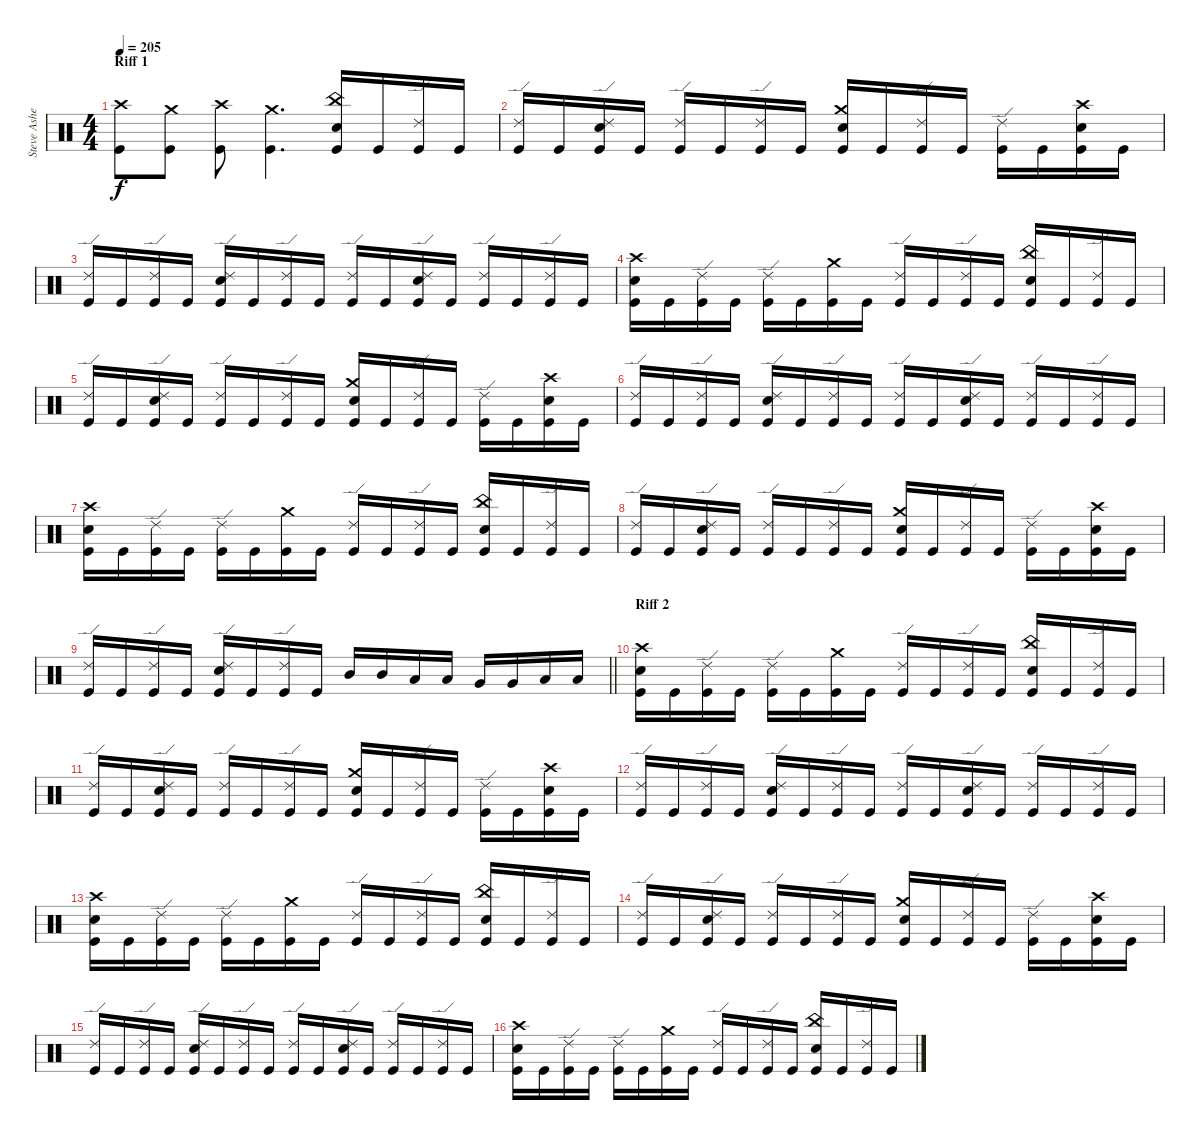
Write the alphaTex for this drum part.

\track ("Steve Asheim" "Steve Ashe") {instrument percussion}
\staff {score}
\articulation defaults
\ts (4 4)
\section ("" "Riff 1")
\tempo 205
\clef neutral
\ks c
("Crash high (hit)" "Kick (hit)").8{dy f} ("Crash medium (hit)" "Kick (hit)").8 ("Crash high (hit)" "Kick (hit)").8 ("Crash medium (hit)" "Kick (hit)").4{d} ("China (hit)" "Snare (hit) 2" "Kick (hit)").16 "Kick (hit)".16 ("Ride (edge) 2" "Kick (hit)").16 "Kick (hit)".16 |
("Ride (edge) 2" "Kick (hit)").16 "Kick (hit)".16 ("Ride (edge) 2" "Snare (hit) 2" "Kick (hit)").16 "Kick (hit)".16 ("Ride (edge) 2" "Kick (hit)").16 "Kick (hit)".16 ("Ride (edge) 2" "Kick (hit)").16 "Kick (hit)".16 ("Crash medium (hit)" "Snare (hit) 2" "Kick (hit)").16 "Kick (hit)".16 ("Ride (edge) 2" "Kick (hit)").16 "Kick (hit)".16 ("Ride (edge) 2" "Kick (hit)").16 "Kick (hit)".16 ("Crash high (hit)" "Snare (hit) 2" "Kick (hit)").16 "Kick (hit)".16 |
("Ride (edge) 2" "Kick (hit)").16 "Kick (hit)".16 ("Ride (edge) 2" "Kick (hit)").16 "Kick (hit)".16 ("Ride (edge) 2" "Snare (hit) 2" "Kick (hit)").16 "Kick (hit)".16 ("Ride (edge) 2" "Kick (hit)").16 "Kick (hit)".16 ("Ride (edge) 2" "Kick (hit)").16 "Kick (hit)".16 ("Ride (edge) 2" "Snare (hit) 2" "Kick (hit)").16 "Kick (hit)".16 ("Ride (edge) 2" "Kick (hit)").16 "Kick (hit)".16 ("Ride (edge) 2" "Kick (hit)").16 "Kick (hit)".16 |
("Crash high (hit)" "Snare (hit) 2" "Kick (hit)").16 "Kick (hit)".16 ("Ride (edge) 2" "Kick (hit)").16 "Kick (hit)".16 ("Ride (edge) 2" "Kick (hit)").16 "Kick (hit)".16 ("Crash medium (hit)" "Kick (hit)").16 "Kick (hit)".16 ("Ride (edge) 2" "Kick (hit)").16 "Kick (hit)".16 ("Ride (edge) 2" "Kick (hit)").16 "Kick (hit)".16 ("China (hit)" "Snare (hit) 2" "Kick (hit)").16 "Kick (hit)".16 ("Ride (edge) 2" "Kick (hit)").16 "Kick (hit)".16 |
("Ride (edge) 2" "Kick (hit)").16 "Kick (hit)".16 ("Ride (edge) 2" "Snare (hit) 2" "Kick (hit)").16 "Kick (hit)".16 ("Ride (edge) 2" "Kick (hit)").16 "Kick (hit)".16 ("Ride (edge) 2" "Kick (hit)").16 "Kick (hit)".16 ("Crash medium (hit)" "Snare (hit) 2" "Kick (hit)").16 "Kick (hit)".16 ("Ride (edge) 2" "Kick (hit)").16 "Kick (hit)".16 ("Ride (edge) 2" "Kick (hit)").16 "Kick (hit)".16 ("Crash high (hit)" "Snare (hit) 2" "Kick (hit)").16 "Kick (hit)".16 |
("Ride (edge) 2" "Kick (hit)").16 "Kick (hit)".16 ("Ride (edge) 2" "Kick (hit)").16 "Kick (hit)".16 ("Ride (edge) 2" "Snare (hit) 2" "Kick (hit)").16 "Kick (hit)".16 ("Ride (edge) 2" "Kick (hit)").16 "Kick (hit)".16 ("Ride (edge) 2" "Kick (hit)").16 "Kick (hit)".16 ("Ride (edge) 2" "Snare (hit) 2" "Kick (hit)").16 "Kick (hit)".16 ("Ride (edge) 2" "Kick (hit)").16 "Kick (hit)".16 ("Ride (edge) 2" "Kick (hit)").16 "Kick (hit)".16 |
("Crash high (hit)" "Snare (hit) 2" "Kick (hit)").16 "Kick (hit)".16 ("Ride (edge) 2" "Kick (hit)").16 "Kick (hit)".16 ("Ride (edge) 2" "Kick (hit)").16 "Kick (hit)".16 ("Crash medium (hit)" "Kick (hit)").16 "Kick (hit)".16 ("Ride (edge) 2" "Kick (hit)").16 "Kick (hit)".16 ("Ride (edge) 2" "Kick (hit)").16 "Kick (hit)".16 ("China (hit)" "Snare (hit) 2" "Kick (hit)").16 "Kick (hit)".16 ("Ride (edge) 2" "Kick (hit)").16 "Kick (hit)".16 |
("Ride (edge) 2" "Kick (hit)").16 "Kick (hit)".16 ("Ride (edge) 2" "Snare (hit) 2" "Kick (hit)").16 "Kick (hit)".16 ("Ride (edge) 2" "Kick (hit)").16 "Kick (hit)".16 ("Ride (edge) 2" "Kick (hit)").16 "Kick (hit)".16 ("Crash medium (hit)" "Snare (hit) 2" "Kick (hit)").16 "Kick (hit)".16 ("Ride (edge) 2" "Kick (hit)").16 "Kick (hit)".16 ("Ride (edge) 2" "Kick (hit)").16 "Kick (hit)".16 ("Crash high (hit)" "Snare (hit) 2" "Kick (hit)").16 "Kick (hit)".16 |
\barLineRight lightlight
("Ride (edge) 2" "Kick (hit)").16 "Kick (hit)".16 ("Ride (edge) 2" "Kick (hit)").16 "Kick (hit)".16 ("Ride (edge) 2" "Snare (hit) 2" "Kick (hit)").16 "Kick (hit)".16 ("Ride (edge) 2" "Kick (hit)").16 "Kick (hit)".16 "Mid Tom (hit)".16 "Mid Tom (hit)".16 "Low Tom (hit)".16 "Low Tom (hit)".16 "Very Low Tom (hit)".16 "Very Low Tom (hit)".16 "Low Floor Tom (hit)".16 "Low Floor Tom (hit)".16 |
\section ("" "Riff 2")
("Crash high (hit)" "Snare (hit) 2" "Kick (hit)").16 "Kick (hit)".16 ("Ride (edge) 2" "Kick (hit)").16 "Kick (hit)".16 ("Ride (edge) 2" "Kick (hit)").16 "Kick (hit)".16 ("Crash medium (hit)" "Kick (hit)").16 "Kick (hit)".16 ("Ride (edge) 2" "Kick (hit)").16 "Kick (hit)".16 ("Ride (edge) 2" "Kick (hit)").16 "Kick (hit)".16 ("China (hit)" "Snare (hit) 2" "Kick (hit)").16 "Kick (hit)".16 ("Ride (edge) 2" "Kick (hit)").16 "Kick (hit)".16 |
("Ride (edge) 2" "Kick (hit)").16 "Kick (hit)".16 ("Ride (edge) 2" "Snare (hit) 2" "Kick (hit)").16 "Kick (hit)".16 ("Ride (edge) 2" "Kick (hit)").16 "Kick (hit)".16 ("Ride (edge) 2" "Kick (hit)").16 "Kick (hit)".16 ("Crash medium (hit)" "Snare (hit) 2" "Kick (hit)").16 "Kick (hit)".16 ("Ride (edge) 2" "Kick (hit)").16 "Kick (hit)".16 ("Ride (edge) 2" "Kick (hit)").16 "Kick (hit)".16 ("Crash high (hit)" "Snare (hit) 2" "Kick (hit)").16 "Kick (hit)".16 |
("Ride (edge) 2" "Kick (hit)").16 "Kick (hit)".16 ("Ride (edge) 2" "Kick (hit)").16 "Kick (hit)".16 ("Ride (edge) 2" "Snare (hit) 2" "Kick (hit)").16 "Kick (hit)".16 ("Ride (edge) 2" "Kick (hit)").16 "Kick (hit)".16 ("Ride (edge) 2" "Kick (hit)").16 "Kick (hit)".16 ("Ride (edge) 2" "Snare (hit) 2" "Kick (hit)").16 "Kick (hit)".16 ("Ride (edge) 2" "Kick (hit)").16 "Kick (hit)".16 ("Ride (edge) 2" "Kick (hit)").16 "Kick (hit)".16 |
("Crash high (hit)" "Snare (hit) 2" "Kick (hit)").16 "Kick (hit)".16 ("Ride (edge) 2" "Kick (hit)").16 "Kick (hit)".16 ("Ride (edge) 2" "Kick (hit)").16 "Kick (hit)".16 ("Crash medium (hit)" "Kick (hit)").16 "Kick (hit)".16 ("Ride (edge) 2" "Kick (hit)").16 "Kick (hit)".16 ("Ride (edge) 2" "Kick (hit)").16 "Kick (hit)".16 ("China (hit)" "Snare (hit) 2" "Kick (hit)").16 "Kick (hit)".16 ("Ride (edge) 2" "Kick (hit)").16 "Kick (hit)".16 |
("Ride (edge) 2" "Kick (hit)").16 "Kick (hit)".16 ("Ride (edge) 2" "Snare (hit) 2" "Kick (hit)").16 "Kick (hit)".16 ("Ride (edge) 2" "Kick (hit)").16 "Kick (hit)".16 ("Ride (edge) 2" "Kick (hit)").16 "Kick (hit)".16 ("Crash medium (hit)" "Snare (hit) 2" "Kick (hit)").16 "Kick (hit)".16 ("Ride (edge) 2" "Kick (hit)").16 "Kick (hit)".16 ("Ride (edge) 2" "Kick (hit)").16 "Kick (hit)".16 ("Crash high (hit)" "Snare (hit) 2" "Kick (hit)").16 "Kick (hit)".16 |
("Ride (edge) 2" "Kick (hit)").16 "Kick (hit)".16 ("Ride (edge) 2" "Kick (hit)").16 "Kick (hit)".16 ("Ride (edge) 2" "Snare (hit) 2" "Kick (hit)").16 "Kick (hit)".16 ("Ride (edge) 2" "Kick (hit)").16 "Kick (hit)".16 ("Ride (edge) 2" "Kick (hit)").16 "Kick (hit)".16 ("Ride (edge) 2" "Snare (hit) 2" "Kick (hit)").16 "Kick (hit)".16 ("Ride (edge) 2" "Kick (hit)").16 "Kick (hit)".16 ("Ride (edge) 2" "Kick (hit)").16 "Kick (hit)".16 |
("Crash high (hit)" "Snare (hit) 2" "Kick (hit)").16 "Kick (hit)".16 ("Ride (edge) 2" "Kick (hit)").16 "Kick (hit)".16 ("Ride (edge) 2" "Kick (hit)").16 "Kick (hit)".16 ("Crash medium (hit)" "Kick (hit)").16 "Kick (hit)".16 ("Ride (edge) 2" "Kick (hit)").16 "Kick (hit)".16 ("Ride (edge) 2" "Kick (hit)").16 "Kick (hit)".16 ("China (hit)" "Snare (hit) 2" "Kick (hit)").16 "Kick (hit)".16 ("Ride (edge) 2" "Kick (hit)").16 "Kick (hit)".16
